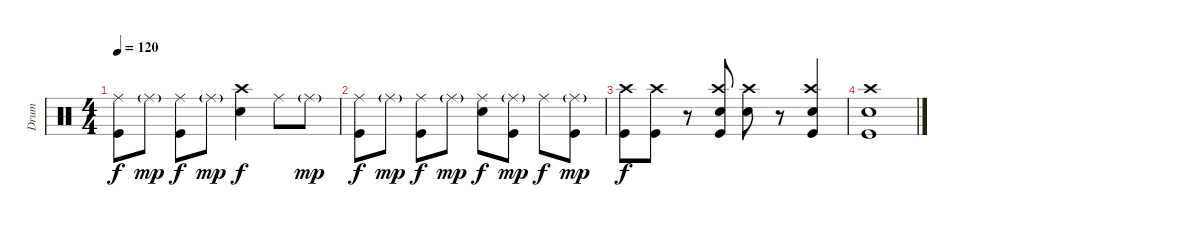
\track ("Drum" "Drum") {instrument percussion}
\staff {score}
\articulation defaults
\ts (4 4)
\tempo 120
\clef neutral
\ks c
("Ride (middle)" "Kick (hit)").8{dy f} "Ride (middle)"{g}.8{dy mp} ("Ride (middle)" "Kick (hit)").8{dy f} "Ride (middle)"{g}.8{dy mp} ("Crash high (hit)" "Snare (hit) 2").4{dy f} "Ride (middle)".8 "Ride (middle)"{g}.8{dy mp} |
("Ride (middle)" "Kick (hit)").8{dy f} "Ride (middle)"{g}.8{dy mp} ("Ride (middle)" "Kick (hit)").8{dy f} "Ride (middle)"{g}.8{dy mp} ("Ride (middle)" "Snare (hit) 2").8{dy f} ("Ride (middle)"{g} "Kick (hit)").8{dy mp} "Ride (middle)".8{dy f} ("Ride (middle)"{g} "Kick (hit)").8{dy mp} |
("Crash high (hit)" "Kick (hit)").8{dy f} ("Crash high (hit)" "Kick (hit)").8 r.8 ("Crash high (hit)" "Snare (hit) 2" "Kick (hit)").8 ("Crash high (hit)" "Snare (hit) 2").8 r.8 ("Crash high (hit)" "Snare (hit) 2" "Kick (hit)").4 |
("Crash high (hit)" "Snare (hit) 2" "Kick (hit)").1
